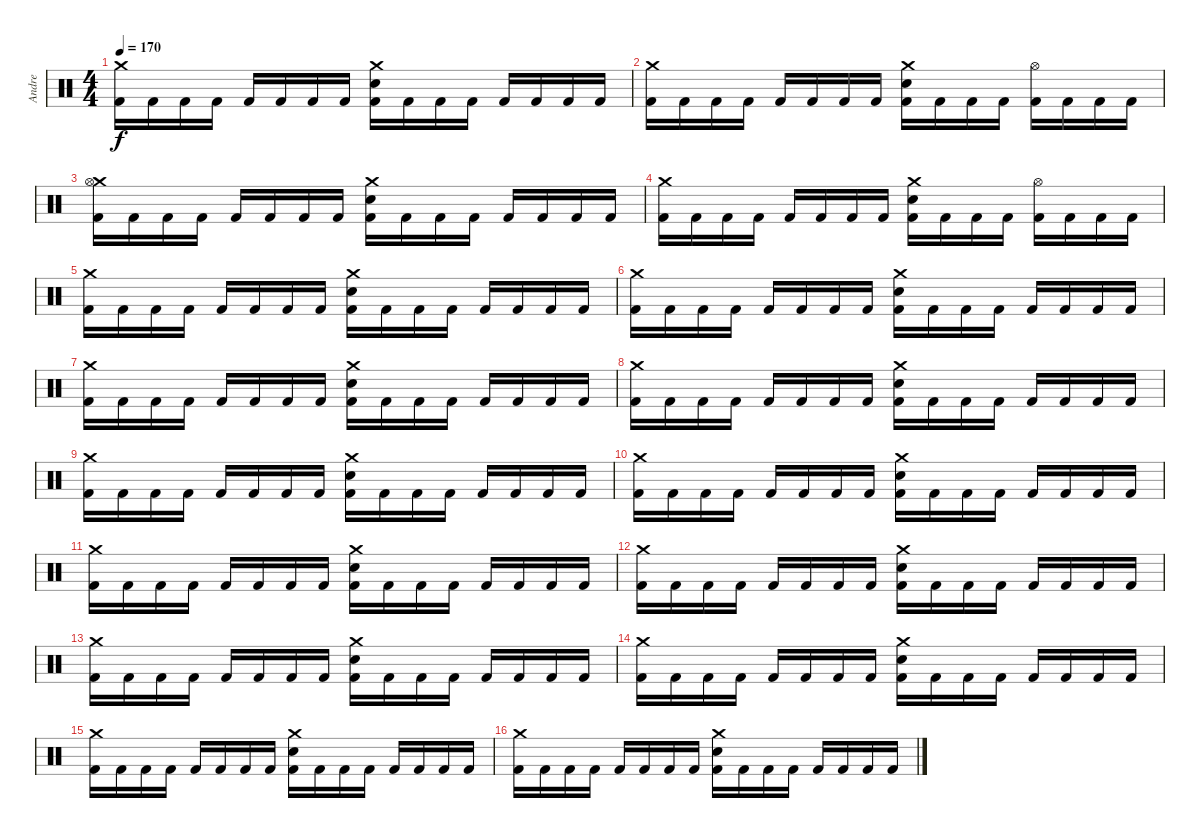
\track ("Andre" "Andre") {instrument percussion}
\staff {score}
\articulation defaults
\ts (4 4)
\tempo 170
\clef neutral
\ks c
("Crash medium (hit)" "Kick (hit) 2").16{dy f} "Kick (hit) 2".16 "Kick (hit) 2".16 "Kick (hit) 2".16 "Kick (hit) 2".16 "Kick (hit) 2".16 "Kick (hit) 2".16 "Kick (hit) 2".16 ("Crash medium (hit)" "Snare (hit) 2" "Kick (hit) 2").16 "Kick (hit) 2".16 "Kick (hit) 2".16 "Kick (hit) 2".16 "Kick (hit) 2".16 "Kick (hit) 2".16 "Kick (hit) 2".16 "Kick (hit) 2".16 |
("Crash medium (hit)" "Kick (hit) 2").16 "Kick (hit) 2".16 "Kick (hit) 2".16 "Kick (hit) 2".16 "Kick (hit) 2".16 "Kick (hit) 2".16 "Kick (hit) 2".16 "Kick (hit) 2".16 ("Crash medium (hit)" "Snare (hit) 2" "Kick (hit) 2").16 "Kick (hit) 2".16 "Kick (hit) 2".16 "Kick (hit) 2".16 ("Hi-Hat (open)" "Kick (hit) 2").16 "Kick (hit) 2".16 "Kick (hit) 2".16 "Kick (hit) 2".16 |
("Crash medium (hit)" "Hi-Hat (open)" "Kick (hit) 2").16 "Kick (hit) 2".16 "Kick (hit) 2".16 "Kick (hit) 2".16 "Kick (hit) 2".16 "Kick (hit) 2".16 "Kick (hit) 2".16 "Kick (hit) 2".16 ("Crash medium (hit)" "Snare (hit) 2" "Kick (hit) 2").16 "Kick (hit) 2".16 "Kick (hit) 2".16 "Kick (hit) 2".16 "Kick (hit) 2".16 "Kick (hit) 2".16 "Kick (hit) 2".16 "Kick (hit) 2".16 |
("Crash medium (hit)" "Kick (hit) 2").16 "Kick (hit) 2".16 "Kick (hit) 2".16 "Kick (hit) 2".16 "Kick (hit) 2".16 "Kick (hit) 2".16 "Kick (hit) 2".16 "Kick (hit) 2".16 ("Crash medium (hit)" "Snare (hit) 2" "Kick (hit) 2").16 "Kick (hit) 2".16 "Kick (hit) 2".16 "Kick (hit) 2".16 ("Hi-Hat (open)" "Kick (hit) 2").16 "Kick (hit) 2".16 "Kick (hit) 2".16 "Kick (hit) 2".16 |
("Crash medium (hit)" "Kick (hit) 2").16 "Kick (hit) 2".16 "Kick (hit) 2".16 "Kick (hit) 2".16 "Kick (hit) 2".16 "Kick (hit) 2".16 "Kick (hit) 2".16 "Kick (hit) 2".16 ("Crash medium (hit)" "Snare (hit) 2" "Kick (hit) 2").16 "Kick (hit) 2".16 "Kick (hit) 2".16 "Kick (hit) 2".16 "Kick (hit) 2".16 "Kick (hit) 2".16 "Kick (hit) 2".16 "Kick (hit) 2".16 |
("Crash medium (hit)" "Kick (hit) 2").16 "Kick (hit) 2".16 "Kick (hit) 2".16 "Kick (hit) 2".16 "Kick (hit) 2".16 "Kick (hit) 2".16 "Kick (hit) 2".16 "Kick (hit) 2".16 ("Crash medium (hit)" "Snare (hit) 2" "Kick (hit) 2").16 "Kick (hit) 2".16 "Kick (hit) 2".16 "Kick (hit) 2".16 "Kick (hit) 2".16 "Kick (hit) 2".16 "Kick (hit) 2".16 "Kick (hit) 2".16 |
("Crash medium (hit)" "Kick (hit) 2").16 "Kick (hit) 2".16 "Kick (hit) 2".16 "Kick (hit) 2".16 "Kick (hit) 2".16 "Kick (hit) 2".16 "Kick (hit) 2".16 "Kick (hit) 2".16 ("Crash medium (hit)" "Snare (hit) 2" "Kick (hit) 2").16 "Kick (hit) 2".16 "Kick (hit) 2".16 "Kick (hit) 2".16 "Kick (hit) 2".16 "Kick (hit) 2".16 "Kick (hit) 2".16 "Kick (hit) 2".16 |
("Crash medium (hit)" "Kick (hit) 2").16 "Kick (hit) 2".16 "Kick (hit) 2".16 "Kick (hit) 2".16 "Kick (hit) 2".16 "Kick (hit) 2".16 "Kick (hit) 2".16 "Kick (hit) 2".16 ("Crash medium (hit)" "Snare (hit) 2" "Kick (hit) 2").16 "Kick (hit) 2".16 "Kick (hit) 2".16 "Kick (hit) 2".16 "Kick (hit) 2".16 "Kick (hit) 2".16 "Kick (hit) 2".16 "Kick (hit) 2".16 |
("Crash medium (hit)" "Kick (hit) 2").16 "Kick (hit) 2".16 "Kick (hit) 2".16 "Kick (hit) 2".16 "Kick (hit) 2".16 "Kick (hit) 2".16 "Kick (hit) 2".16 "Kick (hit) 2".16 ("Crash medium (hit)" "Snare (hit) 2" "Kick (hit) 2").16 "Kick (hit) 2".16 "Kick (hit) 2".16 "Kick (hit) 2".16 "Kick (hit) 2".16 "Kick (hit) 2".16 "Kick (hit) 2".16 "Kick (hit) 2".16 |
("Crash medium (hit)" "Kick (hit) 2").16 "Kick (hit) 2".16 "Kick (hit) 2".16 "Kick (hit) 2".16 "Kick (hit) 2".16 "Kick (hit) 2".16 "Kick (hit) 2".16 "Kick (hit) 2".16 ("Crash medium (hit)" "Snare (hit) 2" "Kick (hit) 2").16 "Kick (hit) 2".16 "Kick (hit) 2".16 "Kick (hit) 2".16 "Kick (hit) 2".16 "Kick (hit) 2".16 "Kick (hit) 2".16 "Kick (hit) 2".16 |
("Crash medium (hit)" "Kick (hit) 2").16 "Kick (hit) 2".16 "Kick (hit) 2".16 "Kick (hit) 2".16 "Kick (hit) 2".16 "Kick (hit) 2".16 "Kick (hit) 2".16 "Kick (hit) 2".16 ("Crash medium (hit)" "Snare (hit) 2" "Kick (hit) 2").16 "Kick (hit) 2".16 "Kick (hit) 2".16 "Kick (hit) 2".16 "Kick (hit) 2".16 "Kick (hit) 2".16 "Kick (hit) 2".16 "Kick (hit) 2".16 |
("Crash medium (hit)" "Kick (hit) 2").16 "Kick (hit) 2".16 "Kick (hit) 2".16 "Kick (hit) 2".16 "Kick (hit) 2".16 "Kick (hit) 2".16 "Kick (hit) 2".16 "Kick (hit) 2".16 ("Crash medium (hit)" "Snare (hit) 2" "Kick (hit) 2").16 "Kick (hit) 2".16 "Kick (hit) 2".16 "Kick (hit) 2".16 "Kick (hit) 2".16 "Kick (hit) 2".16 "Kick (hit) 2".16 "Kick (hit) 2".16 |
("Crash medium (hit)" "Kick (hit) 2").16 "Kick (hit) 2".16 "Kick (hit) 2".16 "Kick (hit) 2".16 "Kick (hit) 2".16 "Kick (hit) 2".16 "Kick (hit) 2".16 "Kick (hit) 2".16 ("Crash medium (hit)" "Snare (hit) 2" "Kick (hit) 2").16 "Kick (hit) 2".16 "Kick (hit) 2".16 "Kick (hit) 2".16 "Kick (hit) 2".16 "Kick (hit) 2".16 "Kick (hit) 2".16 "Kick (hit) 2".16 |
("Crash medium (hit)" "Kick (hit) 2").16 "Kick (hit) 2".16 "Kick (hit) 2".16 "Kick (hit) 2".16 "Kick (hit) 2".16 "Kick (hit) 2".16 "Kick (hit) 2".16 "Kick (hit) 2".16 ("Crash medium (hit)" "Snare (hit) 2" "Kick (hit) 2").16 "Kick (hit) 2".16 "Kick (hit) 2".16 "Kick (hit) 2".16 "Kick (hit) 2".16 "Kick (hit) 2".16 "Kick (hit) 2".16 "Kick (hit) 2".16 |
("Crash medium (hit)" "Kick (hit) 2").16 "Kick (hit) 2".16 "Kick (hit) 2".16 "Kick (hit) 2".16 "Kick (hit) 2".16 "Kick (hit) 2".16 "Kick (hit) 2".16 "Kick (hit) 2".16 ("Crash medium (hit)" "Snare (hit) 2" "Kick (hit) 2").16 "Kick (hit) 2".16 "Kick (hit) 2".16 "Kick (hit) 2".16 "Kick (hit) 2".16 "Kick (hit) 2".16 "Kick (hit) 2".16 "Kick (hit) 2".16 |
("Crash medium (hit)" "Kick (hit) 2").16 "Kick (hit) 2".16 "Kick (hit) 2".16 "Kick (hit) 2".16 "Kick (hit) 2".16 "Kick (hit) 2".16 "Kick (hit) 2".16 "Kick (hit) 2".16 ("Crash medium (hit)" "Snare (hit) 2" "Kick (hit) 2").16 "Kick (hit) 2".16 "Kick (hit) 2".16 "Kick (hit) 2".16 "Kick (hit) 2".16 "Kick (hit) 2".16 "Kick (hit) 2".16 "Kick (hit) 2".16
